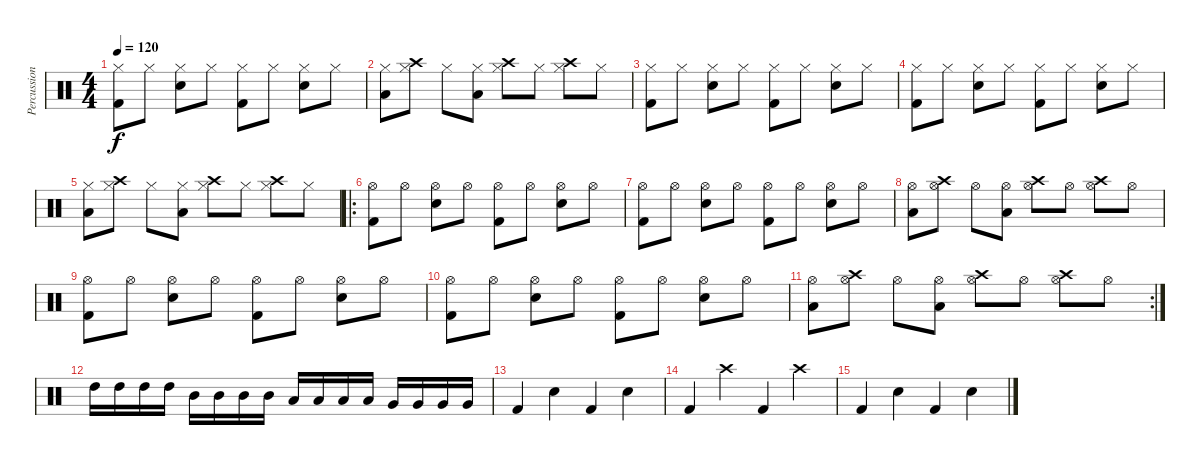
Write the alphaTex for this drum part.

\track ("Percussion" "Percussion") {instrument percussion}
\staff {score}
\articulation defaults
\ts (4 4)
\tempo 120
\clef neutral
\ks c
("Hi-Hat (closed)" "Kick (hit) 2").8{dy f} "Hi-Hat (closed)".8 ("Hi-Hat (closed)" "Electric Snare (hit)").8 "Hi-Hat (closed)".8 ("Hi-Hat (closed)" "Kick (hit) 2").8 "Hi-Hat (closed)".8 ("Hi-Hat (closed)" "Electric Snare (hit)").8 "Hi-Hat (closed)".8 |
("Low Tom (hit)" "Hi-Hat (closed)").8 ("Crash high (hit)" "Hi-Hat (closed)").8 "Hi-Hat (closed)".8 ("Low Tom (hit)" "Hi-Hat (closed)").8 ("Crash high (hit)" "Hi-Hat (closed)").8 "Hi-Hat (closed)".8 ("Crash high (hit)" "Hi-Hat (closed)").8 "Hi-Hat (closed)".8 |
("Hi-Hat (closed)" "Kick (hit) 2").8 "Hi-Hat (closed)".8 ("Hi-Hat (closed)" "Electric Snare (hit)").8 "Hi-Hat (closed)".8 ("Hi-Hat (closed)" "Kick (hit) 2").8 "Hi-Hat (closed)".8 ("Hi-Hat (closed)" "Electric Snare (hit)").8 "Hi-Hat (closed)".8 |
("Hi-Hat (closed)" "Kick (hit) 2").8 "Hi-Hat (closed)".8 ("Hi-Hat (closed)" "Electric Snare (hit)").8 "Hi-Hat (closed)".8 ("Hi-Hat (closed)" "Kick (hit) 2").8 "Hi-Hat (closed)".8 ("Hi-Hat (closed)" "Electric Snare (hit)").8 "Hi-Hat (closed)".8 |
("Low Tom (hit)" "Hi-Hat (closed)").8 ("Crash high (hit)" "Hi-Hat (closed)").8 "Hi-Hat (closed)".8 ("Low Tom (hit)" "Hi-Hat (closed)").8 ("Crash high (hit)" "Hi-Hat (closed)").8 "Hi-Hat (closed)".8 ("Crash high (hit)" "Hi-Hat (closed)").8 "Hi-Hat (closed)".8 |
\ro
("Hi-Hat (open)" "Kick (hit) 2").8 "Hi-Hat (open)".8 ("Hi-Hat (open)" "Electric Snare (hit)").8 "Hi-Hat (open)".8 ("Hi-Hat (open)" "Kick (hit) 2").8 "Hi-Hat (open)".8 ("Hi-Hat (open)" "Electric Snare (hit)").8 "Hi-Hat (open)".8 |
("Hi-Hat (open)" "Kick (hit) 2").8 "Hi-Hat (open)".8 ("Hi-Hat (open)" "Electric Snare (hit)").8 "Hi-Hat (open)".8 ("Hi-Hat (open)" "Kick (hit) 2").8 "Hi-Hat (open)".8 ("Hi-Hat (open)" "Electric Snare (hit)").8 "Hi-Hat (open)".8 |
("Low Tom (hit)" "Hi-Hat (open)").8 ("Crash high (hit)" "Hi-Hat (open)").8 "Hi-Hat (open)".8 ("Low Tom (hit)" "Hi-Hat (open)").8 ("Crash high (hit)" "Hi-Hat (open)").8 "Hi-Hat (open)".8 ("Crash high (hit)" "Hi-Hat (open)").8 "Hi-Hat (open)".8 |
("Hi-Hat (open)" "Kick (hit) 2").8 "Hi-Hat (open)".8 ("Hi-Hat (open)" "Electric Snare (hit)").8 "Hi-Hat (open)".8 ("Hi-Hat (open)" "Kick (hit) 2").8 "Hi-Hat (open)".8 ("Hi-Hat (open)" "Electric Snare (hit)").8 "Hi-Hat (open)".8 |
("Hi-Hat (open)" "Kick (hit) 2").8 "Hi-Hat (open)".8 ("Hi-Hat (open)" "Electric Snare (hit)").8 "Hi-Hat (open)".8 ("Hi-Hat (open)" "Kick (hit) 2").8 "Hi-Hat (open)".8 ("Hi-Hat (open)" "Electric Snare (hit)").8 "Hi-Hat (open)".8 |
\rc 2
("Low Tom (hit)" "Hi-Hat (open)").8 ("Crash high (hit)" "Hi-Hat (open)").8 "Hi-Hat (open)".8 ("Low Tom (hit)" "Hi-Hat (open)").8 ("Crash high (hit)" "Hi-Hat (open)").8 "Hi-Hat (open)".8 ("Crash high (hit)" "Hi-Hat (open)").8 "Hi-Hat (open)".8 |
"High Tom (hit)".16 "High Tom (hit)".16 "High Tom (hit)".16 "High Tom (hit)".16 "Mid Tom (hit)".16 "Mid Tom (hit)".16 "Mid Tom (hit)".16 "Mid Tom (hit)".16 "Low Tom (hit)".16 "Low Tom (hit)".16 "Low Tom (hit)".16 "Low Tom (hit)".16 "Very Low Tom (hit)".16 "Very Low Tom (hit)".16 "Very Low Tom (hit)".16 "Very Low Tom (hit)".16 |
"Kick (hit) 2".4 "Electric Snare (hit)".4 "Kick (hit) 2".4 "Electric Snare (hit)".4 |
"Kick (hit) 2".4 "Crash high (hit)".4 "Kick (hit) 2".4 "Crash high (hit)".4 |
"Kick (hit) 2".4 "Electric Snare (hit)".4 "Kick (hit) 2".4 "Electric Snare (hit)".4
